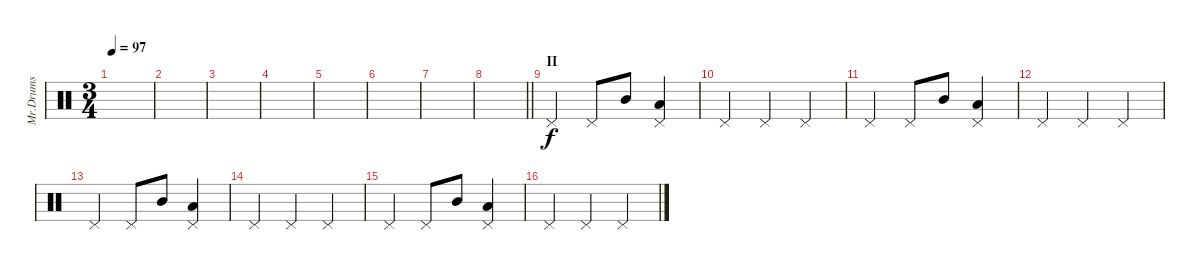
\track ("Mr.Drums" "Mr.Drums") {instrument percussion}
\staff {score}
\articulation defaults
\ts (3 4)
\tempo 97
\clef neutral
\ks c
|
|
|
|
|
|
|
\barLineRight lightlight
|
\section ("" "II")
"Pedal Hi-Hat (hit)".4 "Pedal Hi-Hat (hit)".8 "Mid Tom (hit)".8 ("Pedal Hi-Hat (hit)" "Low Floor Tom (hit)").4 |
"Pedal Hi-Hat (hit)".4 "Pedal Hi-Hat (hit)".4 "Pedal Hi-Hat (hit)".4 |
"Pedal Hi-Hat (hit)".4 "Pedal Hi-Hat (hit)".8 "Mid Tom (hit)".8 ("Pedal Hi-Hat (hit)" "Low Floor Tom (hit)").4 |
"Pedal Hi-Hat (hit)".4 "Pedal Hi-Hat (hit)".4 "Pedal Hi-Hat (hit)".4 |
"Pedal Hi-Hat (hit)".4 "Pedal Hi-Hat (hit)".8 "Mid Tom (hit)".8 ("Pedal Hi-Hat (hit)" "Low Floor Tom (hit)").4 |
"Pedal Hi-Hat (hit)".4 "Pedal Hi-Hat (hit)".4 "Pedal Hi-Hat (hit)".4 |
"Pedal Hi-Hat (hit)".4 "Pedal Hi-Hat (hit)".8 "Mid Tom (hit)".8 ("Pedal Hi-Hat (hit)" "Low Floor Tom (hit)").4 |
"Pedal Hi-Hat (hit)".4 "Pedal Hi-Hat (hit)".4 "Pedal Hi-Hat (hit)".4
